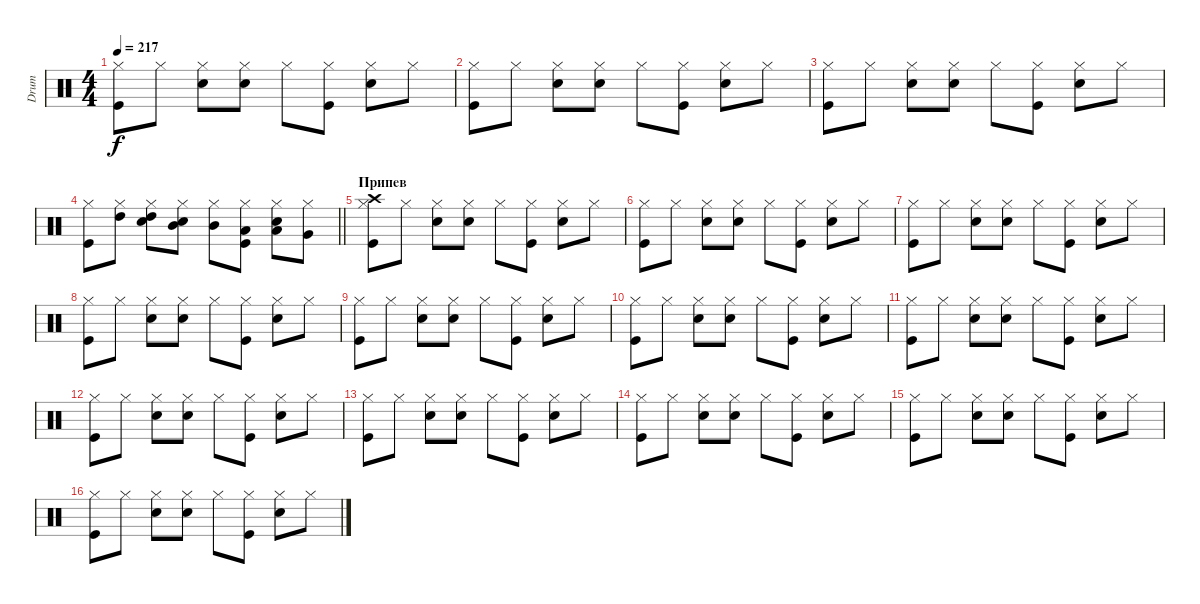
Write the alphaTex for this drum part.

\track ("Drum" "Drum") {instrument percussion}
\staff {score}
\articulation defaults
\ts (4 4)
\tempo 217
\clef neutral
\ks c
("Kick (hit)" "Hi-Hat (closed)").8{dy f} "Hi-Hat (closed)".8 ("Snare (hit) 2" "Hi-Hat (closed)").8 ("Snare (hit) 2" "Hi-Hat (closed)").8 "Hi-Hat (closed)".8 ("Kick (hit)" "Hi-Hat (closed)").8 ("Snare (hit) 2" "Hi-Hat (closed)").8 "Hi-Hat (closed)".8 |
("Kick (hit)" "Hi-Hat (closed)").8 "Hi-Hat (closed)".8 ("Snare (hit) 2" "Hi-Hat (closed)").8 ("Snare (hit) 2" "Hi-Hat (closed)").8 "Hi-Hat (closed)".8 ("Kick (hit)" "Hi-Hat (closed)").8 ("Snare (hit) 2" "Hi-Hat (closed)").8 "Hi-Hat (closed)".8 |
("Kick (hit)" "Hi-Hat (closed)").8 "Hi-Hat (closed)".8 ("Snare (hit) 2" "Hi-Hat (closed)").8 ("Snare (hit) 2" "Hi-Hat (closed)").8 "Hi-Hat (closed)".8 ("Kick (hit)" "Hi-Hat (closed)").8 ("Snare (hit) 2" "Hi-Hat (closed)").8 "Hi-Hat (closed)".8 |
\barLineRight lightlight
("Kick (hit)" "Hi-Hat (closed)").8 ("Hi-Hat (closed)" "High Tom (hit)").8 ("Snare (hit) 2" "Hi-Hat (closed)" "High Tom (hit)").8 ("Snare (hit) 2" "Hi-Hat (closed)" "Mid Tom (hit)").8 ("Hi-Hat (closed)" "Mid Tom (hit)").8 ("Kick (hit)" "Hi-Hat (closed)" "Low Tom (hit)").8 ("Snare (hit) 2" "Hi-Hat (closed)" "Low Tom (hit)").8 ("Hi-Hat (closed)" "Very Low Tom (hit)").8 |
\section ("" "Припев")
("Kick (hit)" "Hi-Hat (closed)" "Crash high (hit)").8 "Hi-Hat (closed)".8 ("Snare (hit) 2" "Hi-Hat (closed)").8 ("Snare (hit) 2" "Hi-Hat (closed)").8 "Hi-Hat (closed)".8 ("Kick (hit)" "Hi-Hat (closed)").8 ("Snare (hit) 2" "Hi-Hat (closed)").8 "Hi-Hat (closed)".8 |
("Kick (hit)" "Hi-Hat (closed)").8 "Hi-Hat (closed)".8 ("Snare (hit) 2" "Hi-Hat (closed)").8 ("Snare (hit) 2" "Hi-Hat (closed)").8 "Hi-Hat (closed)".8 ("Kick (hit)" "Hi-Hat (closed)").8 ("Snare (hit) 2" "Hi-Hat (closed)").8 "Hi-Hat (closed)".8 |
("Kick (hit)" "Hi-Hat (closed)").8 "Hi-Hat (closed)".8 ("Snare (hit) 2" "Hi-Hat (closed)").8 ("Snare (hit) 2" "Hi-Hat (closed)").8 "Hi-Hat (closed)".8 ("Kick (hit)" "Hi-Hat (closed)").8 ("Snare (hit) 2" "Hi-Hat (closed)").8 "Hi-Hat (closed)".8 |
("Kick (hit)" "Hi-Hat (closed)").8 "Hi-Hat (closed)".8 ("Snare (hit) 2" "Hi-Hat (closed)").8 ("Snare (hit) 2" "Hi-Hat (closed)").8 "Hi-Hat (closed)".8 ("Kick (hit)" "Hi-Hat (closed)").8 ("Snare (hit) 2" "Hi-Hat (closed)").8 "Hi-Hat (closed)".8 |
("Kick (hit)" "Hi-Hat (closed)").8 "Hi-Hat (closed)".8 ("Snare (hit) 2" "Hi-Hat (closed)").8 ("Snare (hit) 2" "Hi-Hat (closed)").8 "Hi-Hat (closed)".8 ("Kick (hit)" "Hi-Hat (closed)").8 ("Snare (hit) 2" "Hi-Hat (closed)").8 "Hi-Hat (closed)".8 |
("Kick (hit)" "Hi-Hat (closed)").8 "Hi-Hat (closed)".8 ("Snare (hit) 2" "Hi-Hat (closed)").8 ("Snare (hit) 2" "Hi-Hat (closed)").8 "Hi-Hat (closed)".8 ("Kick (hit)" "Hi-Hat (closed)").8 ("Snare (hit) 2" "Hi-Hat (closed)").8 "Hi-Hat (closed)".8 |
("Kick (hit)" "Hi-Hat (closed)").8 "Hi-Hat (closed)".8 ("Snare (hit) 2" "Hi-Hat (closed)").8 ("Snare (hit) 2" "Hi-Hat (closed)").8 "Hi-Hat (closed)".8 ("Kick (hit)" "Hi-Hat (closed)").8 ("Snare (hit) 2" "Hi-Hat (closed)").8 "Hi-Hat (closed)".8 |
("Kick (hit)" "Hi-Hat (closed)").8 "Hi-Hat (closed)".8 ("Snare (hit) 2" "Hi-Hat (closed)").8 ("Snare (hit) 2" "Hi-Hat (closed)").8 "Hi-Hat (closed)".8 ("Kick (hit)" "Hi-Hat (closed)").8 ("Snare (hit) 2" "Hi-Hat (closed)").8 "Hi-Hat (closed)".8 |
("Kick (hit)" "Hi-Hat (closed)").8 "Hi-Hat (closed)".8 ("Snare (hit) 2" "Hi-Hat (closed)").8 ("Snare (hit) 2" "Hi-Hat (closed)").8 "Hi-Hat (closed)".8 ("Kick (hit)" "Hi-Hat (closed)").8 ("Snare (hit) 2" "Hi-Hat (closed)").8 "Hi-Hat (closed)".8 |
("Kick (hit)" "Hi-Hat (closed)").8 "Hi-Hat (closed)".8 ("Snare (hit) 2" "Hi-Hat (closed)").8 ("Snare (hit) 2" "Hi-Hat (closed)").8 "Hi-Hat (closed)".8 ("Kick (hit)" "Hi-Hat (closed)").8 ("Snare (hit) 2" "Hi-Hat (closed)").8 "Hi-Hat (closed)".8 |
("Kick (hit)" "Hi-Hat (closed)").8 "Hi-Hat (closed)".8 ("Snare (hit) 2" "Hi-Hat (closed)").8 ("Snare (hit) 2" "Hi-Hat (closed)").8 "Hi-Hat (closed)".8 ("Kick (hit)" "Hi-Hat (closed)").8 ("Snare (hit) 2" "Hi-Hat (closed)").8 "Hi-Hat (closed)".8 |
("Kick (hit)" "Hi-Hat (closed)").8 "Hi-Hat (closed)".8 ("Snare (hit) 2" "Hi-Hat (closed)").8 ("Snare (hit) 2" "Hi-Hat (closed)").8 "Hi-Hat (closed)".8 ("Kick (hit)" "Hi-Hat (closed)").8 ("Snare (hit) 2" "Hi-Hat (closed)").8 "Hi-Hat (closed)".8
